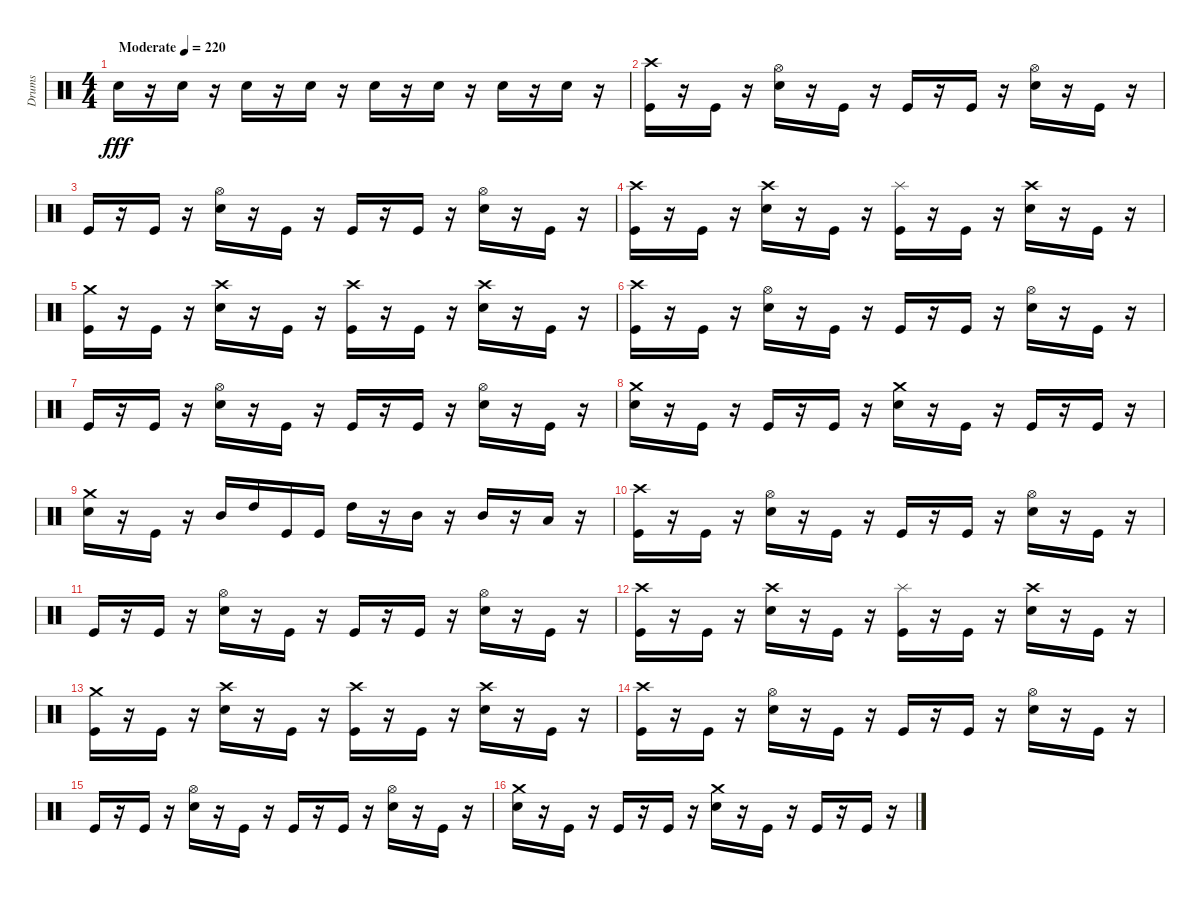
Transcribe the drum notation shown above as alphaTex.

\track ("Drums" "Drums") {instrument percussion}
\staff {score}
\articulation defaults
\ts (4 4)
\tempo (220 "Moderate")
\clef neutral
\ks c "Electric Snare (hit)".16{dy fff}
r.16 "Electric Snare (hit)".16 r.16 "Electric Snare (hit)".16 r.16 "Electric Snare (hit)".16 r.16 "Electric Snare (hit)".16 r.16 "Electric Snare (hit)".16 r.16 "Electric Snare (hit)".16 r.16 "Electric Snare (hit)".16 r.16 |
("Crash high (hit)" "Kick (hit)").16 r.16 "Kick (hit)".16 r.16 ("Hi-Hat (open)" "Electric Snare (hit)").16 r.16 "Kick (hit)".16 r.16 "Kick (hit)".16 r.16 "Kick (hit)".16 r.16 ("Hi-Hat (open)" "Electric Snare (hit)").16 r.16 "Kick (hit)".16 r.16 |
"Kick (hit)".16 r.16 "Kick (hit)".16 r.16 ("Hi-Hat (open)" "Electric Snare (hit)").16 r.16 "Kick (hit)".16 r.16 "Kick (hit)".16 r.16 "Kick (hit)".16 r.16 ("Hi-Hat (open)" "Electric Snare (hit)").16 r.16 "Kick (hit)".16 r.16 |
("Crash high (hit)" "Kick (hit)").16 r.16 "Kick (hit)".16 r.16 ("Crash high (hit)" "Electric Snare (hit)").16 r.16 "Kick (hit)".16 r.16 ("Splash (hit)" "Kick (hit)").16 r.16 "Kick (hit)".16 r.16 ("Crash high (hit)" "Electric Snare (hit)").16 r.16 "Kick (hit)".16 r.16 |
("Crash medium (hit)" "Kick (hit)").16 r.16 "Kick (hit)".16 r.16 ("Crash high (hit)" "Electric Snare (hit)").16 r.16 "Kick (hit)".16 r.16 ("Crash high (hit)" "Kick (hit)").16 r.16 "Kick (hit)".16 r.16 ("Crash high (hit)" "Electric Snare (hit)").16 r.16 "Kick (hit)".16 r.16 |
("Crash high (hit)" "Kick (hit)").16 r.16 "Kick (hit)".16 r.16 ("Hi-Hat (open)" "Electric Snare (hit)").16 r.16 "Kick (hit)".16 r.16 "Kick (hit)".16 r.16 "Kick (hit)".16 r.16 ("Hi-Hat (open)" "Electric Snare (hit)").16 r.16 "Kick (hit)".16 r.16 |
"Kick (hit)".16 r.16 "Kick (hit)".16 r.16 ("Hi-Hat (open)" "Electric Snare (hit)").16 r.16 "Kick (hit)".16 r.16 "Kick (hit)".16 r.16 "Kick (hit)".16 r.16 ("Hi-Hat (open)" "Electric Snare (hit)").16 r.16 "Kick (hit)".16 r.16 |
("Crash medium (hit)" "Electric Snare (hit)").16 r.16 "Kick (hit)".16 r.16 "Kick (hit)".16 r.16 "Kick (hit)".16 r.16 ("Crash medium (hit)" "Electric Snare (hit)").16 r.16 "Kick (hit)".16 r.16 "Kick (hit)".16 r.16 "Kick (hit)".16 r.16 |
("Crash medium (hit)" "Electric Snare (hit)").16 r.16 "Kick (hit)".16 r.16 "Mid Tom (hit)".16 "High Tom (hit)".16 "Kick (hit)".16 "Kick (hit)".16 "High Tom (hit)".16 r.16 "Mid Tom (hit)".16 r.16 "Mid Tom (hit)".16 r.16 "Low Tom (hit)".16 r.16 |
("Crash high (hit)" "Kick (hit)").16 r.16 "Kick (hit)".16 r.16 ("Hi-Hat (open)" "Electric Snare (hit)").16 r.16 "Kick (hit)".16 r.16 "Kick (hit)".16 r.16 "Kick (hit)".16 r.16 ("Hi-Hat (open)" "Electric Snare (hit)").16 r.16 "Kick (hit)".16 r.16 |
"Kick (hit)".16 r.16 "Kick (hit)".16 r.16 ("Hi-Hat (open)" "Electric Snare (hit)").16 r.16 "Kick (hit)".16 r.16 "Kick (hit)".16 r.16 "Kick (hit)".16 r.16 ("Hi-Hat (open)" "Electric Snare (hit)").16 r.16 "Kick (hit)".16 r.16 |
("Crash high (hit)" "Kick (hit)").16 r.16 "Kick (hit)".16 r.16 ("Crash high (hit)" "Electric Snare (hit)").16 r.16 "Kick (hit)".16 r.16 ("Splash (hit)" "Kick (hit)").16 r.16 "Kick (hit)".16 r.16 ("Crash high (hit)" "Electric Snare (hit)").16 r.16 "Kick (hit)".16 r.16 |
("Crash medium (hit)" "Kick (hit)").16 r.16 "Kick (hit)".16 r.16 ("Crash high (hit)" "Electric Snare (hit)").16 r.16 "Kick (hit)".16 r.16 ("Crash high (hit)" "Kick (hit)").16 r.16 "Kick (hit)".16 r.16 ("Crash high (hit)" "Electric Snare (hit)").16 r.16 "Kick (hit)".16 r.16 |
("Crash high (hit)" "Kick (hit)").16 r.16 "Kick (hit)".16 r.16 ("Hi-Hat (open)" "Electric Snare (hit)").16 r.16 "Kick (hit)".16 r.16 "Kick (hit)".16 r.16 "Kick (hit)".16 r.16 ("Hi-Hat (open)" "Electric Snare (hit)").16 r.16 "Kick (hit)".16 r.16 |
"Kick (hit)".16 r.16 "Kick (hit)".16 r.16 ("Hi-Hat (open)" "Electric Snare (hit)").16 r.16 "Kick (hit)".16 r.16 "Kick (hit)".16 r.16 "Kick (hit)".16 r.16 ("Hi-Hat (open)" "Electric Snare (hit)").16 r.16 "Kick (hit)".16 r.16 |
("Crash medium (hit)" "Electric Snare (hit)").16 r.16 "Kick (hit)".16 r.16 "Kick (hit)".16 r.16 "Kick (hit)".16 r.16 ("Crash medium (hit)" "Electric Snare (hit)").16 r.16 "Kick (hit)".16 r.16 "Kick (hit)".16 r.16 "Kick (hit)".16 r.16
